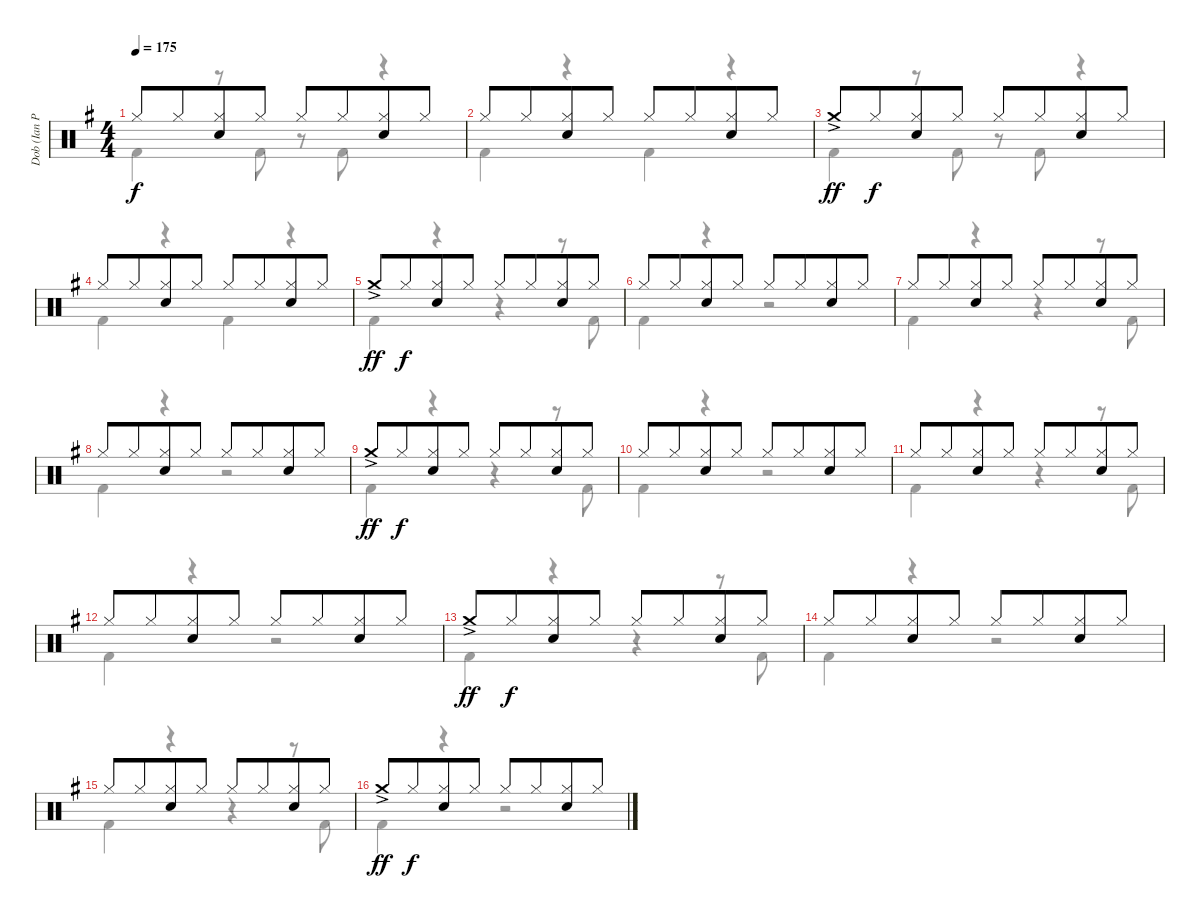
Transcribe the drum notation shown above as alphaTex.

\track ("Dob (Ian Paice)" "Dob (Ian P") {instrument percussion}
\staff {score}
\articulation defaults
\voice
\ts (4 4)
\tempo 175
\clef neutral
\ks g "Hi-Hat (closed)".8{dy f} "Hi-Hat (closed)".8{beam merge}
("Hi-Hat (closed)" "Electric Snare (hit)").8 "Hi-Hat (closed)".8 "Hi-Hat (closed)".8 "Hi-Hat (closed)".8{beam merge} ("Hi-Hat (closed)" "Electric Snare (hit)").8 "Hi-Hat (closed)".8 |
"Hi-Hat (closed)".8 "Hi-Hat (closed)".8{beam merge} ("Hi-Hat (closed)" "Electric Snare (hit)").8 "Hi-Hat (closed)".8 "Hi-Hat (closed)".8 "Hi-Hat (closed)".8{beam merge} ("Hi-Hat (closed)" "Electric Snare (hit)").8 "Hi-Hat (closed)".8 |
"Crash medium (hit)"{ac}.8{dy ff} "Hi-Hat (closed)".8{dy f beam merge} ("Hi-Hat (closed)" "Electric Snare (hit)").8 "Hi-Hat (closed)".8 "Hi-Hat (closed)".8 "Hi-Hat (closed)".8{beam merge} ("Hi-Hat (closed)" "Electric Snare (hit)").8 "Hi-Hat (closed)".8 |
"Hi-Hat (closed)".8 "Hi-Hat (closed)".8{beam merge} ("Hi-Hat (closed)" "Electric Snare (hit)").8 "Hi-Hat (closed)".8 "Hi-Hat (closed)".8 "Hi-Hat (closed)".8{beam merge} ("Hi-Hat (closed)" "Electric Snare (hit)").8 "Hi-Hat (closed)".8 |
"Crash medium (hit)"{ac}.8{dy ff} "Hi-Hat (closed)".8{dy f beam merge} ("Hi-Hat (closed)" "Electric Snare (hit)").8 "Hi-Hat (closed)".8 "Hi-Hat (closed)".8 "Hi-Hat (closed)".8{beam merge} ("Hi-Hat (closed)" "Electric Snare (hit)").8 "Hi-Hat (closed)".8 |
"Hi-Hat (closed)".8 "Hi-Hat (closed)".8{beam merge} ("Hi-Hat (closed)" "Electric Snare (hit)").8 "Hi-Hat (closed)".8 "Hi-Hat (closed)".8 "Hi-Hat (closed)".8{beam merge} ("Hi-Hat (closed)" "Electric Snare (hit)").8 "Hi-Hat (closed)".8 |
"Hi-Hat (closed)".8 "Hi-Hat (closed)".8{beam merge} ("Hi-Hat (closed)" "Electric Snare (hit)").8 "Hi-Hat (closed)".8 "Hi-Hat (closed)".8 "Hi-Hat (closed)".8{beam merge} ("Hi-Hat (closed)" "Electric Snare (hit)").8 "Hi-Hat (closed)".8 |
"Hi-Hat (closed)".8 "Hi-Hat (closed)".8{beam merge} ("Hi-Hat (closed)" "Electric Snare (hit)").8 "Hi-Hat (closed)".8 "Hi-Hat (closed)".8 "Hi-Hat (closed)".8{beam merge} ("Hi-Hat (closed)" "Electric Snare (hit)").8 "Hi-Hat (closed)".8 |
"Crash medium (hit)"{ac}.8{dy ff} "Hi-Hat (closed)".8{dy f beam merge} ("Hi-Hat (closed)" "Electric Snare (hit)").8 "Hi-Hat (closed)".8 "Hi-Hat (closed)".8 "Hi-Hat (closed)".8{beam merge} ("Hi-Hat (closed)" "Electric Snare (hit)").8 "Hi-Hat (closed)".8 |
"Hi-Hat (closed)".8 "Hi-Hat (closed)".8{beam merge} ("Hi-Hat (closed)" "Electric Snare (hit)").8 "Hi-Hat (closed)".8 "Hi-Hat (closed)".8 "Hi-Hat (closed)".8{beam merge} ("Hi-Hat (closed)" "Electric Snare (hit)").8 "Hi-Hat (closed)".8 |
"Hi-Hat (closed)".8 "Hi-Hat (closed)".8{beam merge} ("Hi-Hat (closed)" "Electric Snare (hit)").8 "Hi-Hat (closed)".8 "Hi-Hat (closed)".8 "Hi-Hat (closed)".8{beam merge} ("Hi-Hat (closed)" "Electric Snare (hit)").8 "Hi-Hat (closed)".8 |
"Hi-Hat (closed)".8 "Hi-Hat (closed)".8{beam merge} ("Hi-Hat (closed)" "Electric Snare (hit)").8 "Hi-Hat (closed)".8 "Hi-Hat (closed)".8 "Hi-Hat (closed)".8{beam merge} ("Hi-Hat (closed)" "Electric Snare (hit)").8 "Hi-Hat (closed)".8 |
"Crash medium (hit)"{ac}.8{dy ff} "Hi-Hat (closed)".8{dy f beam merge} ("Hi-Hat (closed)" "Electric Snare (hit)").8 "Hi-Hat (closed)".8 "Hi-Hat (closed)".8 "Hi-Hat (closed)".8{beam merge} ("Hi-Hat (closed)" "Electric Snare (hit)").8 "Hi-Hat (closed)".8 |
"Hi-Hat (closed)".8 "Hi-Hat (closed)".8{beam merge} ("Hi-Hat (closed)" "Electric Snare (hit)").8 "Hi-Hat (closed)".8 "Hi-Hat (closed)".8 "Hi-Hat (closed)".8{beam merge} ("Hi-Hat (closed)" "Electric Snare (hit)").8 "Hi-Hat (closed)".8 |
"Hi-Hat (closed)".8 "Hi-Hat (closed)".8{beam merge} ("Hi-Hat (closed)" "Electric Snare (hit)").8 "Hi-Hat (closed)".8 "Hi-Hat (closed)".8 "Hi-Hat (closed)".8{beam merge} ("Hi-Hat (closed)" "Electric Snare (hit)").8 "Hi-Hat (closed)".8 |
"Crash medium (hit)"{ac}.8{dy ff} "Hi-Hat (closed)".8{dy f beam merge} ("Hi-Hat (closed)" "Electric Snare (hit)").8 "Hi-Hat (closed)".8 "Hi-Hat (closed)".8 "Hi-Hat (closed)".8{beam merge} ("Hi-Hat (closed)" "Electric Snare (hit)").8 "Hi-Hat (closed)".8
\voice
\clef neutral
\ottava regular
\simile none
\ks g "Kick (hit) 2".4{dy f}
r.8 "Kick (hit) 2".8 r.8 "Kick (hit) 2".8 r.4 |
"Kick (hit) 2".4 r.4 "Kick (hit) 2".4 r.4 |
"Kick (hit) 2".4 r.8 "Kick (hit) 2".8 r.8 "Kick (hit) 2".8 r.4 |
"Kick (hit) 2".4 r.4 "Kick (hit) 2".4 r.4 |
"Kick (hit) 2".4 r.4 r.4 r.8 "Kick (hit) 2".8 |
"Kick (hit) 2".4 r.4 r.2 |
"Kick (hit) 2".4 r.4 r.4 r.8 "Kick (hit) 2".8 |
"Kick (hit) 2".4 r.4 r.2 |
"Kick (hit) 2".4 r.4 r.4 r.8 "Kick (hit) 2".8 |
"Kick (hit) 2".4 r.4 r.2 |
"Kick (hit) 2".4 r.4 r.4 r.8 "Kick (hit) 2".8 |
"Kick (hit) 2".4 r.4 r.2 |
"Kick (hit) 2".4 r.4 r.4 r.8 "Kick (hit) 2".8 |
"Kick (hit) 2".4 r.4 r.2 |
"Kick (hit) 2".4 r.4 r.4 r.8 "Kick (hit) 2".8 |
"Kick (hit) 2".4 r.4 r.2
